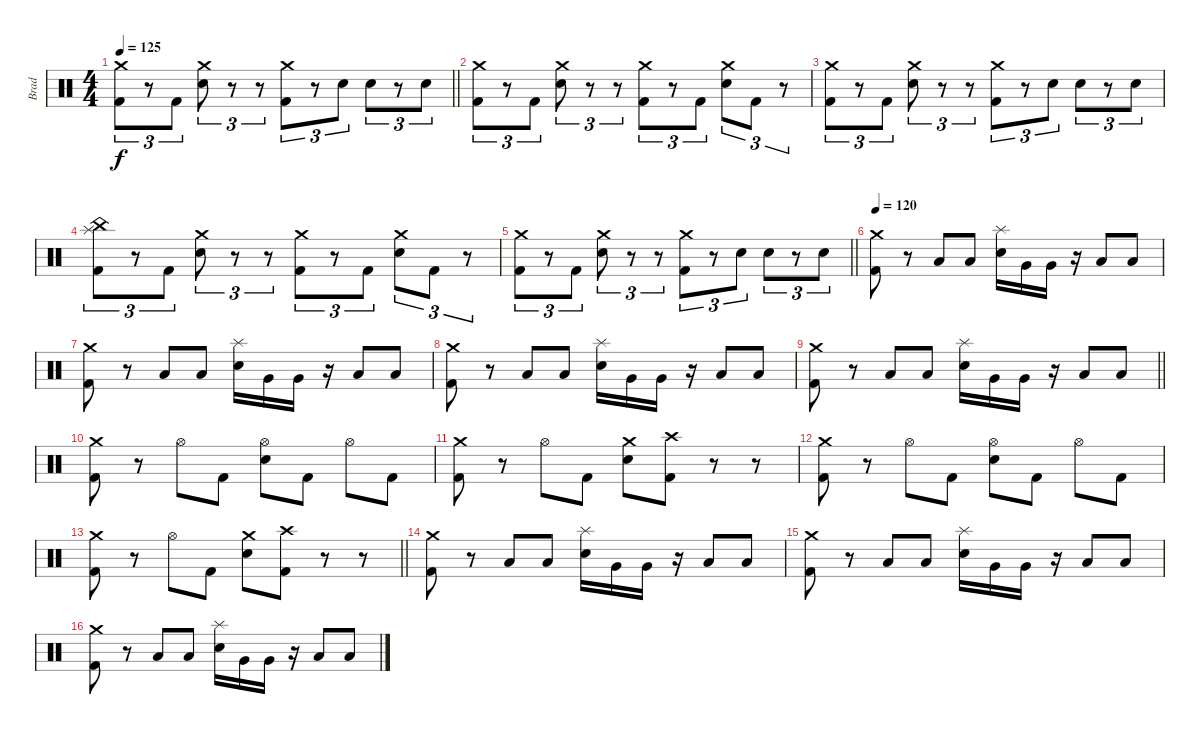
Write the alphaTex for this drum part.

\track ("Brad" "Brad") {instrument percussion}
\staff {score}
\articulation defaults
\ts (4 4)
\tempo 125
\clef neutral
\barLineRight lightlight
\ks c
("Crash medium (hit)" "Kick (hit) 2").8{tu (3 2) dy f} r.8{tu (3 2)} "Kick (hit) 2".8{tu (3 2)} ("Crash medium (hit)" "Electric Snare (hit)").8{tu (3 2)} r.8{tu (3 2)} r.8{tu (3 2)} ("Crash medium (hit)" "Kick (hit) 2").8{tu (3 2)} r.8{tu (3 2)} "Electric Snare (hit)".8{tu (3 2)} "Electric Snare (hit)".8{tu (3 2)} r.8{tu (3 2)} "Electric Snare (hit)".8{tu (3 2)} |
("Crash medium (hit)" "Kick (hit) 2").8{tu (3 2)} r.8{tu (3 2)} "Kick (hit) 2".8{tu (3 2)} ("Crash medium (hit)" "Electric Snare (hit)").8{tu (3 2)} r.8{tu (3 2)} r.8{tu (3 2)} ("Crash medium (hit)" "Kick (hit) 2").8{tu (3 2)} r.8{tu (3 2)} "Kick (hit) 2".8{tu (3 2)} ("Crash medium (hit)" "Electric Snare (hit)").8{tu (3 2)} "Kick (hit) 2".8{tu (3 2)} r.8{tu (3 2)} |
("Crash medium (hit)" "Kick (hit) 2").8{tu (3 2)} r.8{tu (3 2)} "Kick (hit) 2".8{tu (3 2)} ("Crash medium (hit)" "Electric Snare (hit)").8{tu (3 2)} r.8{tu (3 2)} r.8{tu (3 2)} ("Crash medium (hit)" "Kick (hit) 2").8{tu (3 2)} r.8{tu (3 2)} "Electric Snare (hit)".8{tu (3 2)} "Electric Snare (hit)".8{tu (3 2)} r.8{tu (3 2)} "Electric Snare (hit)".8{tu (3 2)} |
("Splash (hit)" "China (hit)" "Kick (hit) 2").8{tu (3 2)} r.8{tu (3 2)} "Kick (hit) 2".8{tu (3 2)} ("Crash medium (hit)" "Electric Snare (hit)").8{tu (3 2)} r.8{tu (3 2)} r.8{tu (3 2)} ("Crash medium (hit)" "Kick (hit) 2").8{tu (3 2)} r.8{tu (3 2)} "Kick (hit) 2".8{tu (3 2)} ("Crash medium (hit)" "Electric Snare (hit)").8{tu (3 2)} "Kick (hit) 2".8{tu (3 2)} r.8{tu (3 2)} |
\barLineRight lightlight
("Crash medium (hit)" "Kick (hit) 2").8{tu (3 2)} r.8{tu (3 2)} "Kick (hit) 2".8{tu (3 2)} ("Crash medium (hit)" "Electric Snare (hit)").8{tu (3 2)} r.8{tu (3 2)} r.8{tu (3 2)} ("Crash medium (hit)" "Kick (hit) 2").8{tu (3 2)} r.8{tu (3 2)} "Electric Snare (hit)".8{tu (3 2)} "Electric Snare (hit)".8{tu (3 2)} r.8{tu (3 2)} "Electric Snare (hit)".8{tu (3 2)} |
\tempo 120
("Crash medium (hit)" "Kick (hit) 2").8 r.8 "Low Tom (hit)".8 "Low Tom (hit)".8 ("Splash (hit)" "Electric Snare (hit)").16 "Very Low Tom (hit)".16 "Very Low Tom (hit)".16 r.16 "Low Tom (hit)".8 "Low Tom (hit)".8 |
("Crash medium (hit)" "Kick (hit) 2").8 r.8 "Low Tom (hit)".8 "Low Tom (hit)".8 ("Splash (hit)" "Electric Snare (hit)").16 "Very Low Tom (hit)".16 "Very Low Tom (hit)".16 r.16 "Low Tom (hit)".8 "Low Tom (hit)".8 |
("Crash medium (hit)" "Kick (hit) 2").8 r.8 "Low Tom (hit)".8 "Low Tom (hit)".8 ("Splash (hit)" "Electric Snare (hit)").16 "Very Low Tom (hit)".16 "Very Low Tom (hit)".16 r.16 "Low Tom (hit)".8 "Low Tom (hit)".8 |
\barLineRight lightlight
("Crash medium (hit)" "Kick (hit) 2").8 r.8 "Low Tom (hit)".8 "Low Tom (hit)".8 ("Splash (hit)" "Electric Snare (hit)").16 "Very Low Tom (hit)".16 "Very Low Tom (hit)".16 r.16 "Low Tom (hit)".8 "Low Tom (hit)".8 |
("Crash medium (hit)" "Kick (hit) 2").8 r.8 "Hi-Hat (open)".8 "Kick (hit) 2".8 ("Hi-Hat (open)" "Electric Snare (hit)").8 "Kick (hit) 2".8 "Hi-Hat (open)".8 "Kick (hit) 2".8 |
("Crash medium (hit)" "Kick (hit) 2").8 r.8 "Hi-Hat (open)".8 "Kick (hit) 2".8 ("Crash medium (hit)" "Electric Snare (hit)").8 ("Crash high (hit)" "Kick (hit) 2").8 r.8 r.8 |
("Crash medium (hit)" "Kick (hit) 2").8 r.8 "Hi-Hat (open)".8 "Kick (hit) 2".8 ("Hi-Hat (open)" "Electric Snare (hit)").8 "Kick (hit) 2".8 "Hi-Hat (open)".8 "Kick (hit) 2".8 |
\barLineRight lightlight
("Crash medium (hit)" "Kick (hit) 2").8 r.8 "Hi-Hat (open)".8 "Kick (hit) 2".8 ("Crash medium (hit)" "Electric Snare (hit)").8 ("Crash high (hit)" "Kick (hit) 2").8 r.8 r.8 |
("Crash medium (hit)" "Kick (hit) 2").8 r.8 "Low Tom (hit)".8 "Low Tom (hit)".8 ("Splash (hit)" "Electric Snare (hit)").16 "Very Low Tom (hit)".16 "Very Low Tom (hit)".16 r.16 "Low Tom (hit)".8 "Low Tom (hit)".8 |
("Crash medium (hit)" "Kick (hit) 2").8 r.8 "Low Tom (hit)".8 "Low Tom (hit)".8 ("Splash (hit)" "Electric Snare (hit)").16 "Very Low Tom (hit)".16 "Very Low Tom (hit)".16 r.16 "Low Tom (hit)".8 "Low Tom (hit)".8 |
("Crash medium (hit)" "Kick (hit) 2").8 r.8 "Low Tom (hit)".8 "Low Tom (hit)".8 ("Splash (hit)" "Electric Snare (hit)").16 "Very Low Tom (hit)".16 "Very Low Tom (hit)".16 r.16 "Low Tom (hit)".8 "Low Tom (hit)".8
